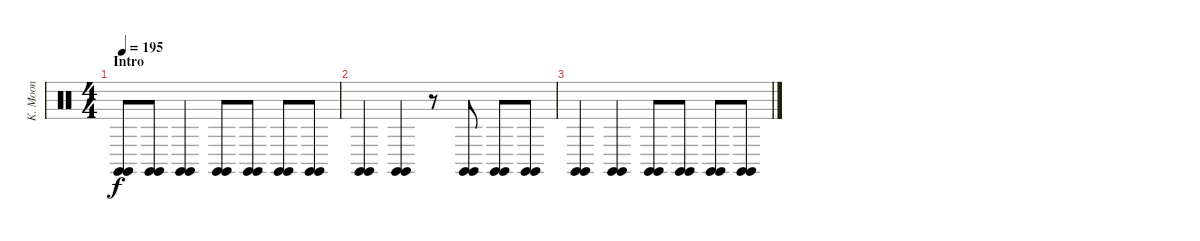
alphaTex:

\track ("K. Moon" "K. Moon") {instrument percussion}
\staff {score}
\articulation defaults
\ts (4 4)
\section ("" "Intro")
\tempo 195
\clef neutral
\ks c
("Claves (hit)" "Claves (hit)").8{dy f} ("Claves (hit)" "Claves (hit)").8 ("Claves (hit)" "Claves (hit)").4 ("Claves (hit)" "Claves (hit)").8 ("Claves (hit)" "Claves (hit)").8 ("Claves (hit)" "Claves (hit)").8 ("Claves (hit)" "Claves (hit)").8 |
("Claves (hit)" "Claves (hit)").4 ("Claves (hit)" "Claves (hit)").4 r.8 ("Claves (hit)" "Claves (hit)").8 ("Claves (hit)" "Claves (hit)").8 ("Claves (hit)" "Claves (hit)").8 |
("Claves (hit)" "Claves (hit)").4 ("Claves (hit)" "Claves (hit)").4 ("Claves (hit)" "Claves (hit)").8 ("Claves (hit)" "Claves (hit)").8 ("Claves (hit)" "Claves (hit)").8 ("Claves (hit)" "Claves (hit)").8
